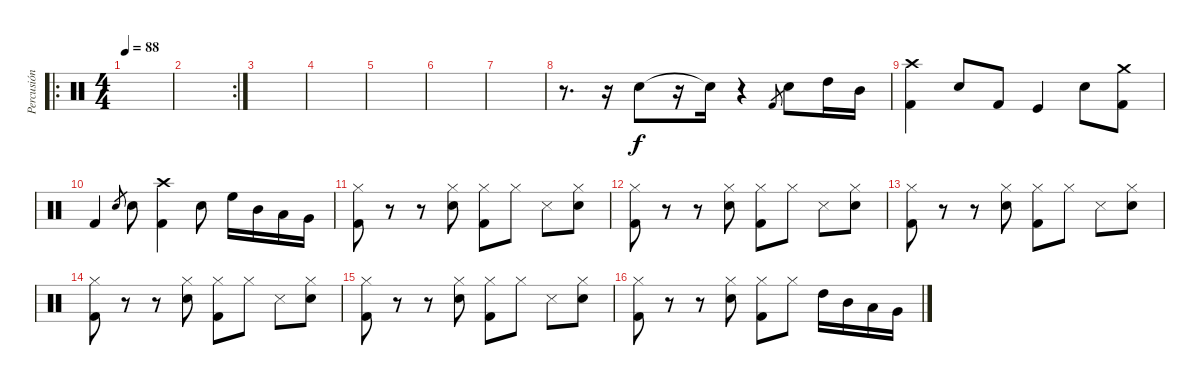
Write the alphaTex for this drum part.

\track ("Percusión" "Percusión") {instrument percussion}
\staff {score}
\articulation defaults
\ro
\ts (4 4)
\tempo 88
\clef neutral
\ks c
|
\rc 2
|
|
|
|
|
|
r.8{d} r.16 "Snare (hit)".8 r.16 "Snare (hit)"{t}.16 r.4 "Kick (hit) 2".8{gr} "Snare (hit) 2".8 "High Tom (hit)".16 "Mid Tom (hit)".16 |
("Crash high (hit)" "Kick (hit) 2").4 "Snare (hit) 2".8 "Kick (hit) 2".8 "Kick (hit)".4 "Snare (hit) 2".8 ("Crash medium (hit)" "Kick (hit) 2").8 |
"Kick (hit) 2".4 "Snare (hit) 2".8{gr} "Snare (hit) 2".8 ("Crash high (hit)" "Kick (hit) 2").4 "Electric Snare (hit)".8 "High Floor Tom (hit)".16 "Mid Tom (hit)".16 "Low Tom (hit)".16 "Very Low Tom (hit)".16 |
("Hi-Hat (closed)" "Kick (hit) 2").8 r.8 r.8 ("Hi-Hat (closed)" "Snare (hit) 2").8 ("Hi-Hat (closed)" "Kick (hit) 2").8 "Hi-Hat (closed)".8 "Snare (side stick) 3".8 ("Hi-Hat (closed)" "Snare (hit) 2").8 |
("Hi-Hat (closed)" "Kick (hit) 2").8 r.8 r.8 ("Hi-Hat (closed)" "Snare (hit) 2").8 ("Hi-Hat (closed)" "Kick (hit) 2").8 "Hi-Hat (closed)".8 "Snare (side stick) 3".8 ("Hi-Hat (closed)" "Snare (hit) 2").8 |
("Hi-Hat (closed)" "Kick (hit) 2").8 r.8 r.8 ("Hi-Hat (closed)" "Snare (hit) 2").8 ("Hi-Hat (closed)" "Kick (hit) 2").8 "Hi-Hat (closed)".8 "Snare (side stick) 3".8 ("Hi-Hat (closed)" "Snare (hit) 2").8 |
("Hi-Hat (closed)" "Kick (hit) 2").8 r.8 r.8 ("Hi-Hat (closed)" "Snare (hit) 2").8 ("Hi-Hat (closed)" "Kick (hit) 2").8 "Hi-Hat (closed)".8 "Snare (side stick) 3".8 ("Hi-Hat (closed)" "Snare (hit) 2").8 |
("Hi-Hat (closed)" "Kick (hit) 2").8 r.8 r.8 ("Hi-Hat (closed)" "Snare (hit) 2").8 ("Hi-Hat (closed)" "Kick (hit) 2").8 "Hi-Hat (closed)".8 "Snare (side stick) 3".8 ("Hi-Hat (closed)" "Snare (hit) 2").8 |
("Hi-Hat (closed)" "Kick (hit) 2").8 r.8 r.8 ("Hi-Hat (closed)" "Snare (hit) 2").8 ("Hi-Hat (closed)" "Kick (hit) 2").8 "Hi-Hat (closed)".8 "High Tom (hit)".16 "Mid Tom (hit)".16 "Low Tom (hit)".16 "Very Low Tom (hit)".16
